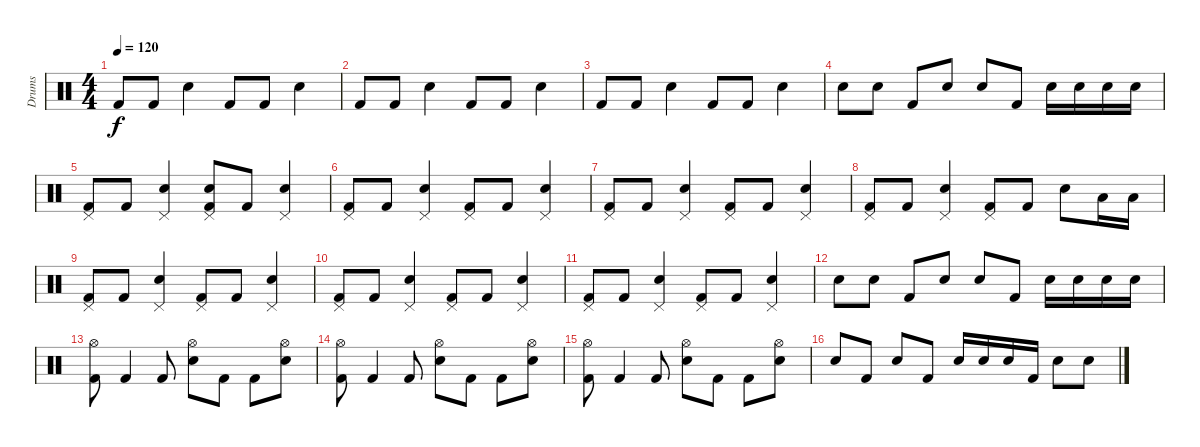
\track ("Drums" "Drums") {instrument percussion}
\staff {score}
\articulation defaults
\ts (4 4)
\tempo 120
\clef neutral
\ks c "Kick (hit) 2".8{dy f} "Kick (hit) 2".8 "Snare (hit) 2".4 "Kick (hit) 2".8 "Kick (hit) 2".8 "Snare (hit) 2".4
|
"Kick (hit) 2".8 "Kick (hit) 2".8 "Snare (hit) 2".4 "Kick (hit) 2".8 "Kick (hit) 2".8 "Snare (hit) 2".4 |
"Kick (hit) 2".8 "Kick (hit) 2".8 "Snare (hit) 2".4 "Kick (hit) 2".8 "Kick (hit) 2".8 "Snare (hit) 2".4 |
"Snare (hit) 2".8 "Snare (hit) 2".8 "Kick (hit) 2".8 "Snare (hit) 2".8 "Snare (hit) 2".8 "Kick (hit) 2".8 "Snare (hit) 2".16 "Snare (hit) 2".16 "Snare (hit) 2".16 "Snare (hit) 2".16 |
("Pedal Hi-Hat (hit)" "Kick (hit) 2").8 "Kick (hit) 2".8 ("Pedal Hi-Hat (hit)" "Snare (hit) 2").4 ("Pedal Hi-Hat (hit)" "Snare (hit)" "Kick (hit) 2").8 "Kick (hit) 2".8 ("Pedal Hi-Hat (hit)" "Snare (hit) 2").4 |
("Pedal Hi-Hat (hit)" "Kick (hit) 2").8 "Kick (hit) 2".8 ("Pedal Hi-Hat (hit)" "Snare (hit) 2").4 ("Pedal Hi-Hat (hit)" "Kick (hit) 2").8 "Kick (hit) 2".8 ("Pedal Hi-Hat (hit)" "Snare (hit) 2").4 |
("Pedal Hi-Hat (hit)" "Kick (hit) 2").8 "Kick (hit) 2".8 ("Pedal Hi-Hat (hit)" "Snare (hit) 2").4 ("Pedal Hi-Hat (hit)" "Kick (hit) 2").8 "Kick (hit) 2".8 ("Pedal Hi-Hat (hit)" "Snare (hit) 2").4 |
("Pedal Hi-Hat (hit)" "Kick (hit) 2").8 "Kick (hit) 2".8 ("Pedal Hi-Hat (hit)" "Snare (hit) 2").4 ("Pedal Hi-Hat (hit)" "Kick (hit) 2").8 "Kick (hit) 2".8 "Snare (hit) 2".8 "Low Tom (hit)".16 "Low Tom (hit)".16 |
("Pedal Hi-Hat (hit)" "Kick (hit) 2").8 "Kick (hit) 2".8 ("Pedal Hi-Hat (hit)" "Snare (hit) 2").4 ("Pedal Hi-Hat (hit)" "Kick (hit) 2").8 "Kick (hit) 2".8 ("Pedal Hi-Hat (hit)" "Snare (hit) 2").4 |
("Pedal Hi-Hat (hit)" "Kick (hit) 2").8 "Kick (hit) 2".8 ("Pedal Hi-Hat (hit)" "Snare (hit) 2").4 ("Pedal Hi-Hat (hit)" "Kick (hit) 2").8 "Kick (hit) 2".8 ("Pedal Hi-Hat (hit)" "Snare (hit) 2").4 |
("Pedal Hi-Hat (hit)" "Kick (hit) 2").8 "Kick (hit) 2".8 ("Pedal Hi-Hat (hit)" "Snare (hit) 2").4 ("Pedal Hi-Hat (hit)" "Kick (hit) 2").8 "Kick (hit) 2".8 ("Pedal Hi-Hat (hit)" "Snare (hit) 2").4 |
"Snare (hit) 2".8 "Snare (hit) 2".8 "Kick (hit) 2".8 "Snare (hit) 2".8 "Snare (hit) 2".8 "Kick (hit) 2".8 "Snare (hit) 2".16 "Snare (hit) 2".16 "Snare (hit) 2".16 "Snare (hit) 2".16 |
("Hi-Hat (open)" "Kick (hit) 2").8 "Kick (hit) 2".4 "Kick (hit) 2".8 ("Hi-Hat (open)" "Snare (hit) 2").8 "Kick (hit) 2".8 "Kick (hit) 2".8 ("Hi-Hat (open)" "Snare (hit) 2").8 |
("Hi-Hat (open)" "Kick (hit) 2").8 "Kick (hit) 2".4 "Kick (hit) 2".8 ("Hi-Hat (open)" "Snare (hit) 2").8 "Kick (hit) 2".8 "Kick (hit) 2".8 ("Hi-Hat (open)" "Snare (hit) 2").8 |
("Hi-Hat (open)" "Kick (hit) 2").8 "Kick (hit) 2".4 "Kick (hit) 2".8 ("Hi-Hat (open)" "Snare (hit) 2").8 "Kick (hit) 2".8 "Kick (hit) 2".8 ("Hi-Hat (open)" "Snare (hit) 2").8 |
"Snare (hit) 2".8 "Kick (hit) 2".8 "Snare (hit) 2".8 "Kick (hit) 2".8 "Snare (hit) 2".16 "Snare (hit) 2".16 "Snare (hit) 2".16 "Kick (hit) 2".16 "Snare (hit) 2".8 "Snare (hit) 2".8
